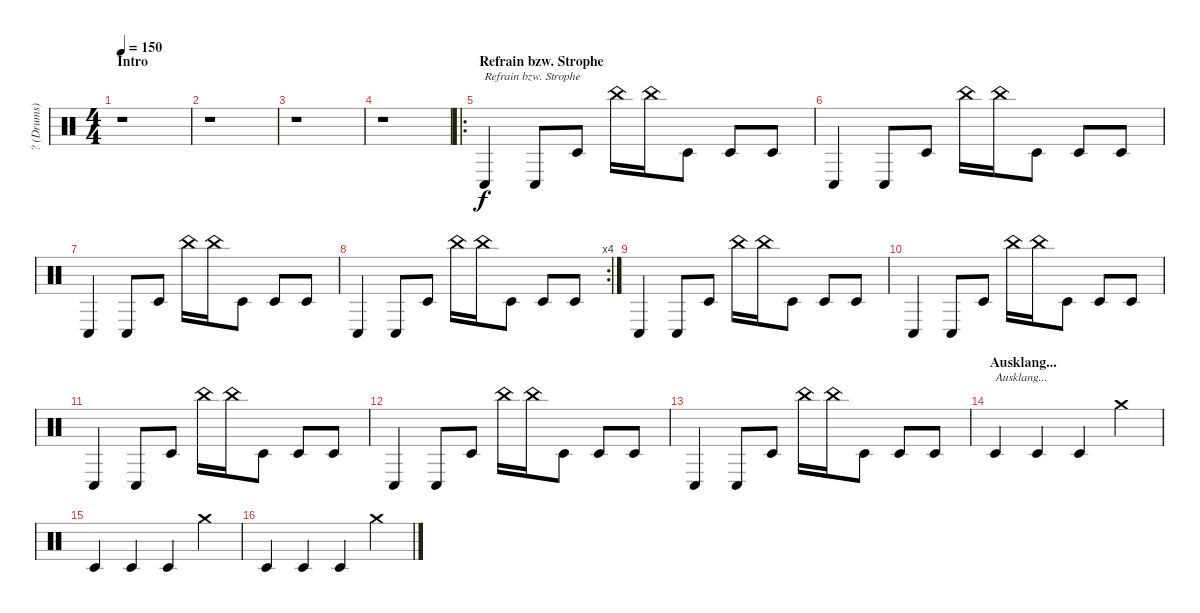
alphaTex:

\track ("? (Drums)" "? (Drums)") {instrument percussion}
\staff {score}
\articulation defaults
\ts (4 4)
\section ("" "Intro")
\tempo 150
\clef neutral
\ks c
r.1{dy f} |
r.1 |
r.1 |
r.1 |
\ro
\section ("" "Refrain bzw. Strophe")
"Conga low (hit)".4{txt "Refrain bzw. Strophe"} "Conga low (hit)".8 "Timbale low (hit)".8 "China (hit)".16 "China (hit)".16 "Timbale low (hit)".8 "Timbale low (hit)".8 "Timbale low (hit)".8 |
"Conga low (hit)".4 "Conga low (hit)".8 "Timbale low (hit)".8 "China (hit)".16 "China (hit)".16 "Timbale low (hit)".8 "Timbale low (hit)".8 "Timbale low (hit)".8 |
"Conga low (hit)".4 "Conga low (hit)".8 "Timbale low (hit)".8 "China (hit)".16 "China (hit)".16 "Timbale low (hit)".8 "Timbale low (hit)".8 "Timbale low (hit)".8 |
\rc 4 "Conga low (hit)".4 "Conga low (hit)".8 "Timbale low (hit)".8 "China (hit)".16 "China (hit)".16 "Timbale low (hit)".8 "Timbale low (hit)".8 "Timbale low (hit)".8
|
"Conga low (hit)".4 "Conga low (hit)".8 "Timbale low (hit)".8 "China (hit)".16 "China (hit)".16 "Timbale low (hit)".8 "Timbale low (hit)".8 "Timbale low (hit)".8 |
"Conga low (hit)".4 "Conga low (hit)".8 "Timbale low (hit)".8 "China (hit)".16 "China (hit)".16 "Timbale low (hit)".8 "Timbale low (hit)".8 "Timbale low (hit)".8 |
"Conga low (hit)".4 "Conga low (hit)".8 "Timbale low (hit)".8 "China (hit)".16 "China (hit)".16 "Timbale low (hit)".8 "Timbale low (hit)".8 "Timbale low (hit)".8 |
"Conga low (hit)".4 "Conga low (hit)".8 "Timbale low (hit)".8 "China (hit)".16 "China (hit)".16 "Timbale low (hit)".8 "Timbale low (hit)".8 "Timbale low (hit)".8 |
"Conga low (hit)".4 "Conga low (hit)".8 "Timbale low (hit)".8 "China (hit)".16 "China (hit)".16 "Timbale low (hit)".8 "Timbale low (hit)".8 "Timbale low (hit)".8 |
\section ("" "Ausklang...")
"Timbale low (hit)".4{txt "Ausklang..."} "Timbale low (hit)".4 "Timbale low (hit)".4 "Crash medium (hit)".4 |
"Timbale low (hit)".4 "Timbale low (hit)".4 "Timbale low (hit)".4 "Crash medium (hit)".4 |
"Timbale low (hit)".4 "Timbale low (hit)".4 "Timbale low (hit)".4 "Crash medium (hit)".4
